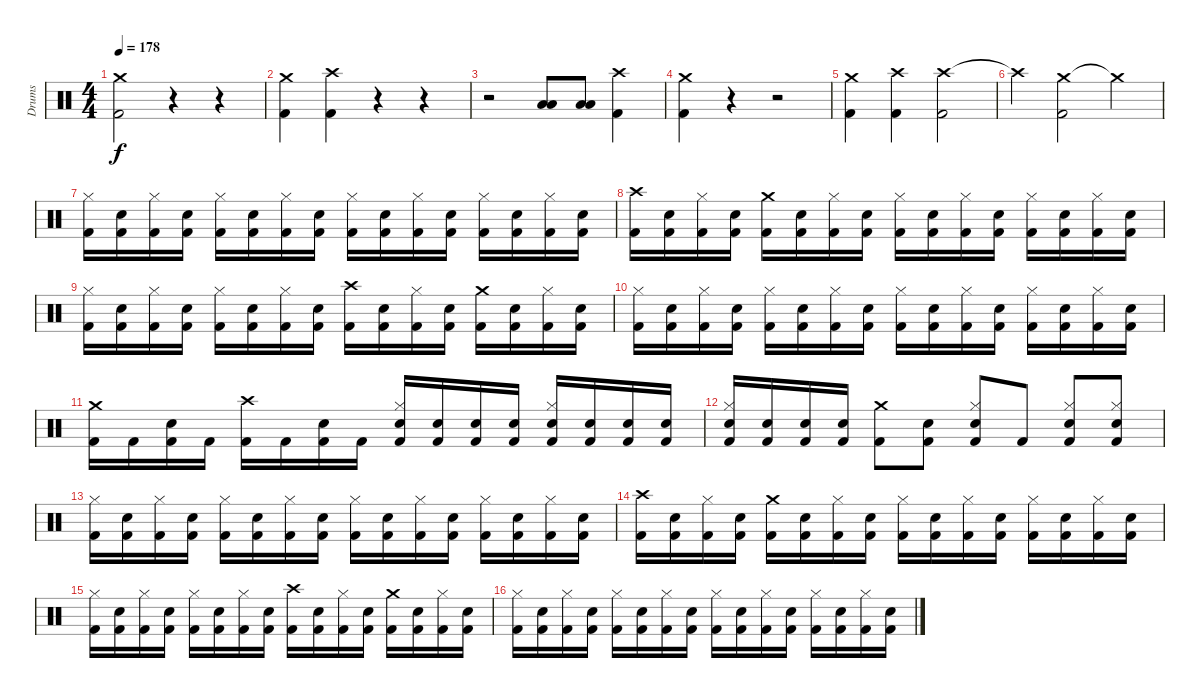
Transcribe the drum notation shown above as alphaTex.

\track ("Drums" "Drums") {instrument percussion}
\staff {score}
\articulation defaults
\ts (4 4)
\tempo 178
\clef neutral
\ks c
("Crash medium (hit)" "Kick (hit) 2").2{dy f} r.4 r.4 |
("Crash medium (hit)" "Kick (hit) 2").4 ("Crash high (hit)" "Kick (hit) 2").4 r.4 r.4 |
r.2 ("Low Tom (hit)" "Low Tom (hit)").8 ("Low Tom (hit)" "Low Tom (hit)").8 ("Crash high (hit)" "Kick (hit) 2").4 |
("Crash medium (hit)" "Kick (hit) 2").4 r.4 r.2 |
("Crash medium (hit)" "Kick (hit) 2").4 ("Crash high (hit)" "Kick (hit) 2").4 ("Crash high (hit)" "Kick (hit) 2").2 |
"Crash high (hit)"{t}.4 ("Crash medium (hit)" "Kick (hit) 2").2 "Crash medium (hit)"{t}.4 |
("Hi-Hat (closed)" "Kick (hit) 2").16 ("Electric Snare (hit)" "Kick (hit) 2").16 ("Hi-Hat (closed)" "Kick (hit) 2").16 ("Electric Snare (hit)" "Kick (hit) 2").16 ("Hi-Hat (closed)" "Kick (hit) 2").16 ("Electric Snare (hit)" "Kick (hit) 2").16 ("Hi-Hat (closed)" "Kick (hit) 2").16 ("Electric Snare (hit)" "Kick (hit) 2").16 ("Hi-Hat (closed)" "Kick (hit) 2").16 ("Electric Snare (hit)" "Kick (hit) 2").16 ("Hi-Hat (closed)" "Kick (hit) 2").16 ("Electric Snare (hit)" "Kick (hit) 2").16 ("Hi-Hat (closed)" "Kick (hit) 2").16 ("Electric Snare (hit)" "Kick (hit) 2").16 ("Hi-Hat (closed)" "Kick (hit) 2").16 ("Electric Snare (hit)" "Kick (hit) 2").16 |
("Crash high (hit)" "Kick (hit) 2").16 ("Electric Snare (hit)" "Kick (hit) 2").16 ("Hi-Hat (closed)" "Kick (hit) 2").16 ("Electric Snare (hit)" "Kick (hit) 2").16 ("Crash medium (hit)" "Kick (hit) 2").16 ("Electric Snare (hit)" "Kick (hit) 2").16 ("Hi-Hat (closed)" "Kick (hit) 2").16 ("Electric Snare (hit)" "Kick (hit) 2").16 ("Hi-Hat (closed)" "Kick (hit) 2").16 ("Electric Snare (hit)" "Kick (hit) 2").16 ("Hi-Hat (closed)" "Kick (hit) 2").16 ("Electric Snare (hit)" "Kick (hit) 2").16 ("Hi-Hat (closed)" "Kick (hit) 2").16 ("Electric Snare (hit)" "Kick (hit) 2").16 ("Hi-Hat (closed)" "Kick (hit) 2").16 ("Electric Snare (hit)" "Kick (hit) 2").16 |
("Hi-Hat (closed)" "Kick (hit) 2").16 ("Electric Snare (hit)" "Kick (hit) 2").16 ("Hi-Hat (closed)" "Kick (hit) 2").16 ("Electric Snare (hit)" "Kick (hit) 2").16 ("Hi-Hat (closed)" "Kick (hit) 2").16 ("Electric Snare (hit)" "Kick (hit) 2").16 ("Hi-Hat (closed)" "Kick (hit) 2").16 ("Electric Snare (hit)" "Kick (hit) 2").16 ("Crash high (hit)" "Kick (hit) 2").16 ("Electric Snare (hit)" "Kick (hit) 2").16 ("Hi-Hat (closed)" "Kick (hit) 2").16 ("Electric Snare (hit)" "Kick (hit) 2").16 ("Crash medium (hit)" "Kick (hit) 2").16 ("Electric Snare (hit)" "Kick (hit) 2").16 ("Hi-Hat (closed)" "Kick (hit) 2").16 ("Electric Snare (hit)" "Kick (hit) 2").16 |
("Hi-Hat (closed)" "Kick (hit) 2").16 ("Electric Snare (hit)" "Kick (hit) 2").16 ("Hi-Hat (closed)" "Kick (hit) 2").16 ("Electric Snare (hit)" "Kick (hit) 2").16 ("Hi-Hat (closed)" "Kick (hit) 2").16 ("Electric Snare (hit)" "Kick (hit) 2").16 ("Hi-Hat (closed)" "Kick (hit) 2").16 ("Electric Snare (hit)" "Kick (hit) 2").16 ("Hi-Hat (closed)" "Kick (hit) 2").16 ("Electric Snare (hit)" "Kick (hit) 2").16 ("Hi-Hat (closed)" "Kick (hit) 2").16 ("Electric Snare (hit)" "Kick (hit) 2").16 ("Hi-Hat (closed)" "Kick (hit) 2").16 ("Electric Snare (hit)" "Kick (hit) 2").16 ("Hi-Hat (closed)" "Kick (hit) 2").16 ("Electric Snare (hit)" "Kick (hit) 2").16 |
("Crash medium (hit)" "Kick (hit) 2").16 "Kick (hit) 2".16 ("Electric Snare (hit)" "Kick (hit) 2").16 "Kick (hit) 2".16 ("Crash high (hit)" "Kick (hit) 2").16 "Kick (hit) 2".16 ("Electric Snare (hit)" "Kick (hit) 2").16 "Kick (hit) 2".16 ("Hi-Hat (closed)" "Electric Snare (hit)" "Kick (hit) 2").16 ("Electric Snare (hit)" "Kick (hit) 2").16 ("Electric Snare (hit)" "Kick (hit) 2").16 ("Electric Snare (hit)" "Kick (hit) 2").16 ("Hi-Hat (closed)" "Electric Snare (hit)" "Kick (hit) 2").16 ("Electric Snare (hit)" "Kick (hit) 2").16 ("Electric Snare (hit)" "Kick (hit) 2").16 ("Electric Snare (hit)" "Kick (hit) 2").16 |
("Hi-Hat (closed)" "Electric Snare (hit)" "Kick (hit) 2").16 ("Electric Snare (hit)" "Kick (hit) 2").16 ("Electric Snare (hit)" "Kick (hit) 2").16 ("Electric Snare (hit)" "Kick (hit) 2").16 ("Crash medium (hit)" "Kick (hit) 2").8 ("Electric Snare (hit)" "Kick (hit) 2").8 ("Hi-Hat (closed)" "Electric Snare (hit)" "Kick (hit) 2").8 "Kick (hit) 2".8 ("Hi-Hat (closed)" "Electric Snare (hit)" "Kick (hit) 2").8 ("Hi-Hat (closed)" "Electric Snare (hit)" "Kick (hit) 2").8 |
("Hi-Hat (closed)" "Kick (hit) 2").16 ("Electric Snare (hit)" "Kick (hit) 2").16 ("Hi-Hat (closed)" "Kick (hit) 2").16 ("Electric Snare (hit)" "Kick (hit) 2").16 ("Hi-Hat (closed)" "Kick (hit) 2").16 ("Electric Snare (hit)" "Kick (hit) 2").16 ("Hi-Hat (closed)" "Kick (hit) 2").16 ("Electric Snare (hit)" "Kick (hit) 2").16 ("Hi-Hat (closed)" "Kick (hit) 2").16 ("Electric Snare (hit)" "Kick (hit) 2").16 ("Hi-Hat (closed)" "Kick (hit) 2").16 ("Electric Snare (hit)" "Kick (hit) 2").16 ("Hi-Hat (closed)" "Kick (hit) 2").16 ("Electric Snare (hit)" "Kick (hit) 2").16 ("Hi-Hat (closed)" "Kick (hit) 2").16 ("Electric Snare (hit)" "Kick (hit) 2").16 |
("Crash high (hit)" "Kick (hit) 2").16 ("Electric Snare (hit)" "Kick (hit) 2").16 ("Hi-Hat (closed)" "Kick (hit) 2").16 ("Electric Snare (hit)" "Kick (hit) 2").16 ("Crash medium (hit)" "Kick (hit) 2").16 ("Electric Snare (hit)" "Kick (hit) 2").16 ("Hi-Hat (closed)" "Kick (hit) 2").16 ("Electric Snare (hit)" "Kick (hit) 2").16 ("Hi-Hat (closed)" "Kick (hit) 2").16 ("Electric Snare (hit)" "Kick (hit) 2").16 ("Hi-Hat (closed)" "Kick (hit) 2").16 ("Electric Snare (hit)" "Kick (hit) 2").16 ("Hi-Hat (closed)" "Kick (hit) 2").16 ("Electric Snare (hit)" "Kick (hit) 2").16 ("Hi-Hat (closed)" "Kick (hit) 2").16 ("Electric Snare (hit)" "Kick (hit) 2").16 |
("Hi-Hat (closed)" "Kick (hit) 2").16 ("Electric Snare (hit)" "Kick (hit) 2").16 ("Hi-Hat (closed)" "Kick (hit) 2").16 ("Electric Snare (hit)" "Kick (hit) 2").16 ("Hi-Hat (closed)" "Kick (hit) 2").16 ("Electric Snare (hit)" "Kick (hit) 2").16 ("Hi-Hat (closed)" "Kick (hit) 2").16 ("Electric Snare (hit)" "Kick (hit) 2").16 ("Crash high (hit)" "Kick (hit) 2").16 ("Electric Snare (hit)" "Kick (hit) 2").16 ("Hi-Hat (closed)" "Kick (hit) 2").16 ("Electric Snare (hit)" "Kick (hit) 2").16 ("Crash medium (hit)" "Kick (hit) 2").16 ("Electric Snare (hit)" "Kick (hit) 2").16 ("Hi-Hat (closed)" "Kick (hit) 2").16 ("Electric Snare (hit)" "Kick (hit) 2").16 |
("Hi-Hat (closed)" "Kick (hit) 2").16 ("Electric Snare (hit)" "Kick (hit) 2").16 ("Hi-Hat (closed)" "Kick (hit) 2").16 ("Electric Snare (hit)" "Kick (hit) 2").16 ("Hi-Hat (closed)" "Kick (hit) 2").16 ("Electric Snare (hit)" "Kick (hit) 2").16 ("Hi-Hat (closed)" "Kick (hit) 2").16 ("Electric Snare (hit)" "Kick (hit) 2").16 ("Hi-Hat (closed)" "Kick (hit) 2").16 ("Electric Snare (hit)" "Kick (hit) 2").16 ("Hi-Hat (closed)" "Kick (hit) 2").16 ("Electric Snare (hit)" "Kick (hit) 2").16 ("Hi-Hat (closed)" "Kick (hit) 2").16 ("Electric Snare (hit)" "Kick (hit) 2").16 ("Hi-Hat (closed)" "Kick (hit) 2").16 ("Electric Snare (hit)" "Kick (hit) 2").16
